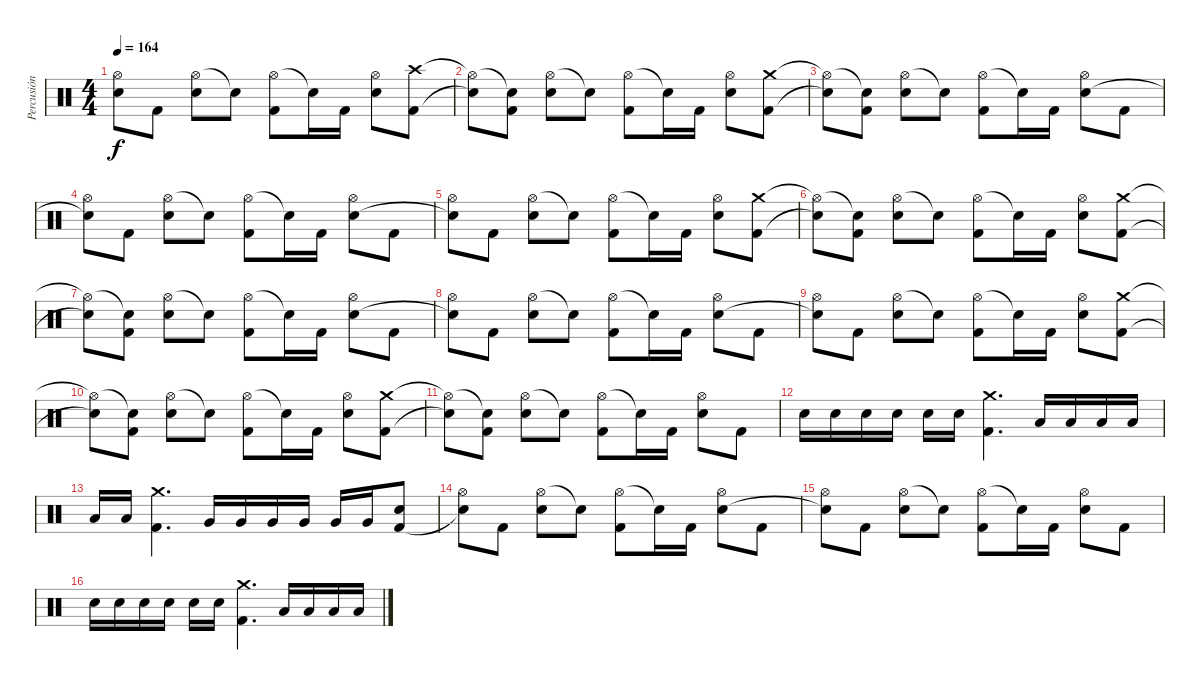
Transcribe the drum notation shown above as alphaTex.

\track ("Percusión" "Percusión") {instrument percussion}
\staff
\articulation defaults
\ts (4 4)
\tempo 164
\clef neutral
\ks c
("Hi-Hat (open)" "Snare (hit)"{t}).8{dy f} "Kick (hit) 2".8 ("Hi-Hat (open)" "Snare (hit) 2").8 "Snare (hit)"{t}.8 ("Hi-Hat (open)" "Kick (hit) 2").8 "Snare (hit)"{t}.16 "Kick (hit) 2".16 ("Hi-Hat (open)" "Snare (hit) 2").8 ("Crash high (hit)" "Kick (hit) 2").8 |
("Hi-Hat (open)"{t} "Snare (hit)"{t}).8 ("Snare (hit)"{t} "Kick (hit) 2").8 ("Hi-Hat (open)" "Snare (hit) 2").8 "Snare (hit)"{t}.8 ("Hi-Hat (open)" "Kick (hit) 2").8 "Snare (hit)"{t}.16 "Kick (hit) 2".16 ("Hi-Hat (open)" "Snare (hit) 2").8 ("Crash medium (hit)" "Kick (hit) 2").8 |
("Hi-Hat (open)"{t} "Snare (hit)"{t}).8 ("Snare (hit)"{t} "Kick (hit) 2").8 ("Hi-Hat (open)" "Snare (hit) 2").8 "Snare (hit)"{t}.8 ("Hi-Hat (open)" "Kick (hit) 2").8 "Snare (hit)"{t}.16 "Kick (hit) 2".16 ("Hi-Hat (open)" "Snare (hit) 2").8 "Kick (hit) 2".8 |
("Hi-Hat (open)" "Snare (hit)"{t}).8 "Kick (hit) 2".8 ("Hi-Hat (open)" "Snare (hit) 2").8 "Snare (hit)"{t}.8 ("Hi-Hat (open)" "Kick (hit) 2").8 "Snare (hit)"{t}.16 "Kick (hit) 2".16 ("Hi-Hat (open)" "Snare (hit) 2").8 "Kick (hit) 2".8 |
("Hi-Hat (open)" "Snare (hit)"{t}).8 "Kick (hit) 2".8 ("Hi-Hat (open)" "Snare (hit) 2").8 "Snare (hit)"{t}.8 ("Hi-Hat (open)" "Kick (hit) 2").8 "Snare (hit)"{t}.16 "Kick (hit) 2".16 ("Hi-Hat (open)" "Snare (hit) 2").8 ("Crash medium (hit)" "Kick (hit) 2").8 |
("Hi-Hat (open)"{t} "Snare (hit)"{t}).8 ("Snare (hit)"{t} "Kick (hit) 2").8 ("Hi-Hat (open)" "Snare (hit) 2").8 "Snare (hit)"{t}.8 ("Hi-Hat (open)" "Kick (hit) 2").8 "Snare (hit)"{t}.16 "Kick (hit) 2".16 ("Hi-Hat (open)" "Snare (hit) 2").8 ("Crash medium (hit)" "Kick (hit) 2").8 |
("Hi-Hat (open)"{t} "Snare (hit)"{t}).8 ("Snare (hit)"{t} "Kick (hit) 2").8 ("Hi-Hat (open)" "Snare (hit) 2").8 "Snare (hit)"{t}.8 ("Hi-Hat (open)" "Kick (hit) 2").8 "Snare (hit)"{t}.16 "Kick (hit) 2".16 ("Hi-Hat (open)" "Snare (hit) 2").8 "Kick (hit) 2".8 |
("Hi-Hat (open)" "Snare (hit)"{t}).8 "Kick (hit) 2".8 ("Hi-Hat (open)" "Snare (hit) 2").8 "Snare (hit)"{t}.8 ("Hi-Hat (open)" "Kick (hit) 2").8 "Snare (hit)"{t}.16 "Kick (hit) 2".16 ("Hi-Hat (open)" "Snare (hit) 2").8 "Kick (hit) 2".8 |
("Hi-Hat (open)" "Snare (hit)"{t}).8 "Kick (hit) 2".8 ("Hi-Hat (open)" "Snare (hit) 2").8 "Snare (hit)"{t}.8 ("Hi-Hat (open)" "Kick (hit) 2").8 "Snare (hit)"{t}.16 "Kick (hit) 2".16 ("Hi-Hat (open)" "Snare (hit) 2").8 ("Crash medium (hit)" "Kick (hit) 2").8 |
("Hi-Hat (open)"{t} "Snare (hit)"{t}).8 ("Snare (hit)"{t} "Kick (hit) 2").8 ("Hi-Hat (open)" "Snare (hit) 2").8 "Snare (hit)"{t}.8 ("Hi-Hat (open)" "Kick (hit) 2").8 "Snare (hit)"{t}.16 "Kick (hit) 2".16 ("Hi-Hat (open)" "Snare (hit) 2").8 ("Crash medium (hit)" "Kick (hit) 2").8 |
("Hi-Hat (open)"{t} "Snare (hit)"{t}).8 ("Snare (hit)"{t} "Kick (hit) 2").8 ("Hi-Hat (open)" "Snare (hit) 2").8 "Snare (hit)"{t}.8 ("Hi-Hat (open)" "Kick (hit) 2").8 "Snare (hit)"{t}.16 "Kick (hit) 2".16 ("Hi-Hat (open)" "Snare (hit) 2").8 "Kick (hit) 2".8 |
"Snare (hit) 2".16 "Snare (hit) 2".16 "Snare (hit) 2".16 "Snare (hit) 2".16 "Snare (hit) 2".16 "Snare (hit) 2".16 ("Crash medium (hit)" "Kick (hit) 2").4{d} "Low Tom (hit)".16 "Low Tom (hit)".16 "Low Tom (hit)".16 "Low Tom (hit)".16 |
"Low Tom (hit)".16 "Low Tom (hit)".16 ("Crash medium (hit)" "Kick (hit) 2").4{d} "Very Low Tom (hit)".16 "Very Low Tom (hit)".16 "Very Low Tom (hit)".16 "Very Low Tom (hit)".16 "Very Low Tom (hit)".16 "Very Low Tom (hit)".16 ("Snare (hit)" "Kick (hit) 2").8 |
("Hi-Hat (open)" "Snare (hit)"{t}).8 "Kick (hit) 2".8 ("Hi-Hat (open)" "Snare (hit) 2").8 "Snare (hit)"{t}.8 ("Hi-Hat (open)" "Kick (hit) 2").8 "Snare (hit)"{t}.16 "Kick (hit) 2".16 ("Hi-Hat (open)" "Snare (hit) 2").8 "Kick (hit) 2".8 |
("Hi-Hat (open)" "Snare (hit)"{t}).8 "Kick (hit) 2".8 ("Hi-Hat (open)" "Snare (hit) 2").8 "Snare (hit)"{t}.8 ("Hi-Hat (open)" "Kick (hit) 2").8 "Snare (hit)"{t}.16 "Kick (hit) 2".16 ("Hi-Hat (open)" "Snare (hit) 2").8 "Kick (hit) 2".8 |
"Snare (hit) 2".16 "Snare (hit) 2".16 "Snare (hit) 2".16 "Snare (hit) 2".16 "Snare (hit) 2".16 "Snare (hit) 2".16 ("Crash medium (hit)" "Kick (hit) 2").4{d} "Low Tom (hit)".16 "Low Tom (hit)".16 "Low Tom (hit)".16 "Low Tom (hit)".16
